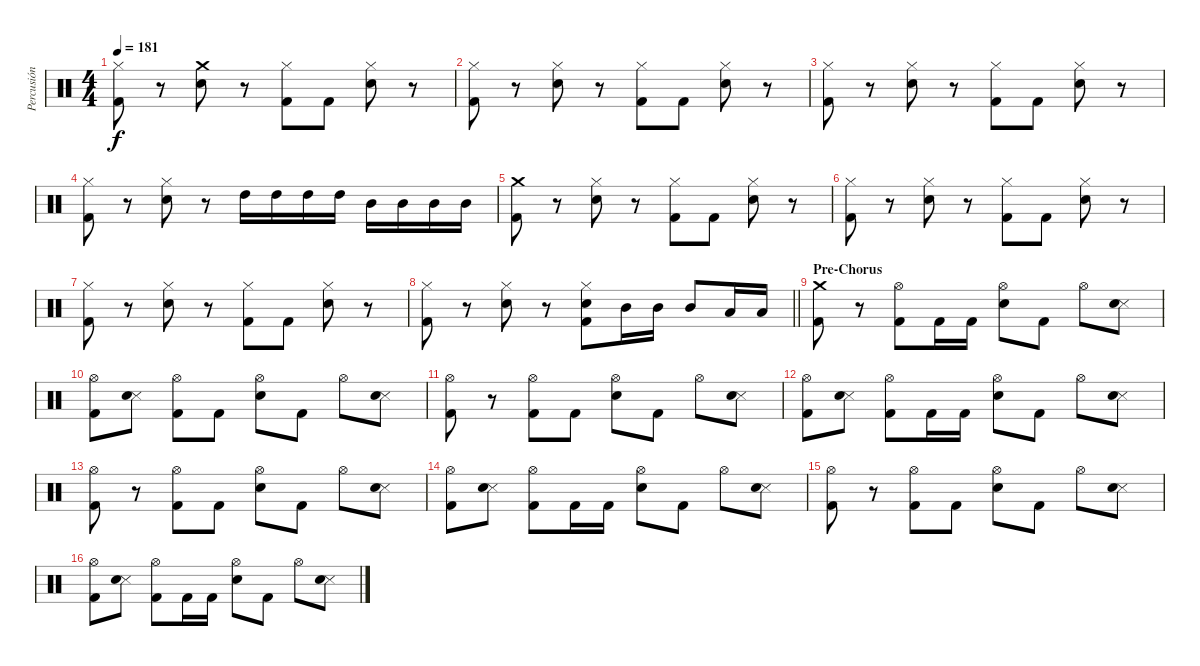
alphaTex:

\track ("Percusión" "Percusión") {instrument percussion}
\staff {score}
\articulation defaults
\ts (4 4)
\tempo 181
\clef neutral
\ks c
("Hi-Hat (closed)" "Kick (hit) 2").8{dy f} r.8 ("Crash medium (hit)" "Electric Snare (hit)").8 r.8 ("Hi-Hat (closed)" "Kick (hit) 2").8 "Kick (hit) 2".8 ("Hi-Hat (closed)" "Electric Snare (hit)").8 r.8 |
("Hi-Hat (closed)" "Kick (hit) 2").8 r.8 ("Hi-Hat (closed)" "Electric Snare (hit)").8 r.8 ("Hi-Hat (closed)" "Kick (hit) 2").8 "Kick (hit) 2".8 ("Hi-Hat (closed)" "Electric Snare (hit)").8 r.8 |
("Hi-Hat (closed)" "Kick (hit) 2").8 r.8 ("Hi-Hat (closed)" "Electric Snare (hit)").8 r.8 ("Hi-Hat (closed)" "Kick (hit) 2").8 "Kick (hit) 2".8 ("Hi-Hat (closed)" "Electric Snare (hit)").8 r.8 |
("Hi-Hat (closed)" "Kick (hit) 2").8 r.8 ("Hi-Hat (closed)" "Electric Snare (hit)").8 r.8 "High Tom (hit)".16 "High Tom (hit)".16 "High Tom (hit)".16 "High Tom (hit)".16 "Mid Tom (hit)".16 "Mid Tom (hit)".16 "Mid Tom (hit)".16 "Mid Tom (hit)".16 |
("Crash medium (hit)" "Kick (hit) 2").8 r.8 ("Hi-Hat (closed)" "Electric Snare (hit)").8 r.8 ("Hi-Hat (closed)" "Kick (hit) 2").8 "Kick (hit) 2".8 ("Hi-Hat (closed)" "Electric Snare (hit)").8 r.8 |
("Hi-Hat (closed)" "Kick (hit) 2").8 r.8 ("Hi-Hat (closed)" "Electric Snare (hit)").8 r.8 ("Hi-Hat (closed)" "Kick (hit) 2").8 "Kick (hit) 2".8 ("Hi-Hat (closed)" "Electric Snare (hit)").8 r.8 |
("Hi-Hat (closed)" "Kick (hit) 2").8 r.8 ("Hi-Hat (closed)" "Electric Snare (hit)").8 r.8 ("Hi-Hat (closed)" "Kick (hit) 2").8 "Kick (hit) 2".8 ("Hi-Hat (closed)" "Electric Snare (hit)").8 r.8 |
\barLineRight lightlight
("Hi-Hat (closed)" "Kick (hit) 2").8 r.8 ("Hi-Hat (closed)" "Electric Snare (hit)").8 r.8 ("Hi-Hat (closed)" "Electric Snare (hit)" "Kick (hit) 2").8 "Mid Tom (hit)".16 "Mid Tom (hit)".16 "Mid Tom (hit)".8 "Low Tom (hit)".16 "Low Tom (hit)".16 |
\section ("" "Pre-Chorus")
("Crash medium (hit)" "Kick (hit) 2").8 r.8 ("Hi-Hat (open)" "Kick (hit) 2").8 "Kick (hit) 2".16 "Kick (hit) 2".16 ("Hi-Hat (open)" "Electric Snare (hit)").8 "Kick (hit) 2".8 "Hi-Hat (open)".8 ("Metronome (hit)" "Electric Snare (hit)").8 |
("Hi-Hat (open)" "Kick (hit) 2").8 ("Metronome (hit)" "Electric Snare (hit)").8 ("Hi-Hat (open)" "Kick (hit) 2").8 "Kick (hit) 2".8 ("Hi-Hat (open)" "Electric Snare (hit)").8 "Kick (hit) 2".8 "Hi-Hat (open)".8 ("Metronome (hit)" "Electric Snare (hit)").8 |
("Hi-Hat (open)" "Kick (hit) 2").8 r.8 ("Hi-Hat (open)" "Kick (hit) 2").8 "Kick (hit) 2".8 ("Hi-Hat (open)" "Electric Snare (hit)").8 "Kick (hit) 2".8 "Hi-Hat (open)".8 ("Metronome (hit)" "Electric Snare (hit)").8 |
("Hi-Hat (open)" "Kick (hit) 2").8 ("Metronome (hit)" "Electric Snare (hit)").8 ("Hi-Hat (open)" "Kick (hit) 2").8 "Kick (hit) 2".16 "Kick (hit) 2".16 ("Hi-Hat (open)" "Electric Snare (hit)").8 "Kick (hit) 2".8 "Hi-Hat (open)".8 ("Metronome (hit)" "Electric Snare (hit)").8 |
("Hi-Hat (open)" "Kick (hit) 2").8 r.8 ("Hi-Hat (open)" "Kick (hit) 2").8 "Kick (hit) 2".8 ("Hi-Hat (open)" "Electric Snare (hit)").8 "Kick (hit) 2".8 "Hi-Hat (open)".8 ("Metronome (hit)" "Electric Snare (hit)").8 |
("Hi-Hat (open)" "Kick (hit) 2").8 ("Metronome (hit)" "Electric Snare (hit)").8 ("Hi-Hat (open)" "Kick (hit) 2").8 "Kick (hit) 2".16 "Kick (hit) 2".16 ("Hi-Hat (open)" "Electric Snare (hit)").8 "Kick (hit) 2".8 "Hi-Hat (open)".8 ("Metronome (hit)" "Electric Snare (hit)").8 |
("Hi-Hat (open)" "Kick (hit) 2").8 r.8 ("Hi-Hat (open)" "Kick (hit) 2").8 "Kick (hit) 2".8 ("Hi-Hat (open)" "Electric Snare (hit)").8 "Kick (hit) 2".8 "Hi-Hat (open)".8 ("Metronome (hit)" "Electric Snare (hit)").8 |
("Hi-Hat (open)" "Kick (hit) 2").8 ("Metronome (hit)" "Electric Snare (hit)").8 ("Hi-Hat (open)" "Kick (hit) 2").8 "Kick (hit) 2".16 "Kick (hit) 2".16 ("Hi-Hat (open)" "Electric Snare (hit)").8 "Kick (hit) 2".8 "Hi-Hat (open)".8 ("Metronome (hit)" "Electric Snare (hit)").8
